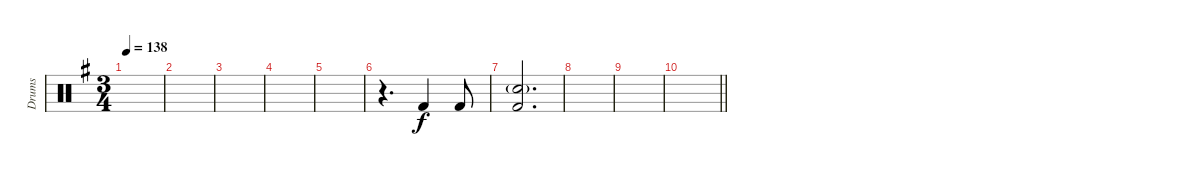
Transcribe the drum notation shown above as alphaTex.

\defaultSystemsLayout 4
\bracketExtendMode groupsimilarinstruments
\otherSystemsTrackNameOrientation horizontal
\track ("Drumkit" "Drums") {instrument percussion}
\staff {score}
\articulation defaults
\ts (3 4)
\beaming (8 3 3)
\scale
0.243821
\tempo 138
\accidentals auto
\clef neutral
\ottava regular
\simile none
\scale
0.502183
\ks eminor
|
\scale
0.16663
\scale
0.248908 |
\scale
0.18831
\scale
0.248908 |
\scale
0.21024
\scale
0.333333 |
\scale
0.191445
\scale
0.333333 |
\scale
0.333333 r.4{d beam Down} "Kick (hit) 2"{acc forcenatural}.4{beam Up} "Kick (hit) 2"{acc forcenatural}.8{beam Up} |
("Kick (hit) 2"{acc forcenatural} "Snare (hit) 2"{g acc forcenatural}).2{d beam Up} |
|
\scale
0.227273 |
\scale
0.213726
\barLineRight lightlight
|
\scale
0.280871 |
\scale
0.0705329 |
\scale
0.292578 |
\scale
0.254567 |
\scale
0.275307 |
\scale
0.0542102
